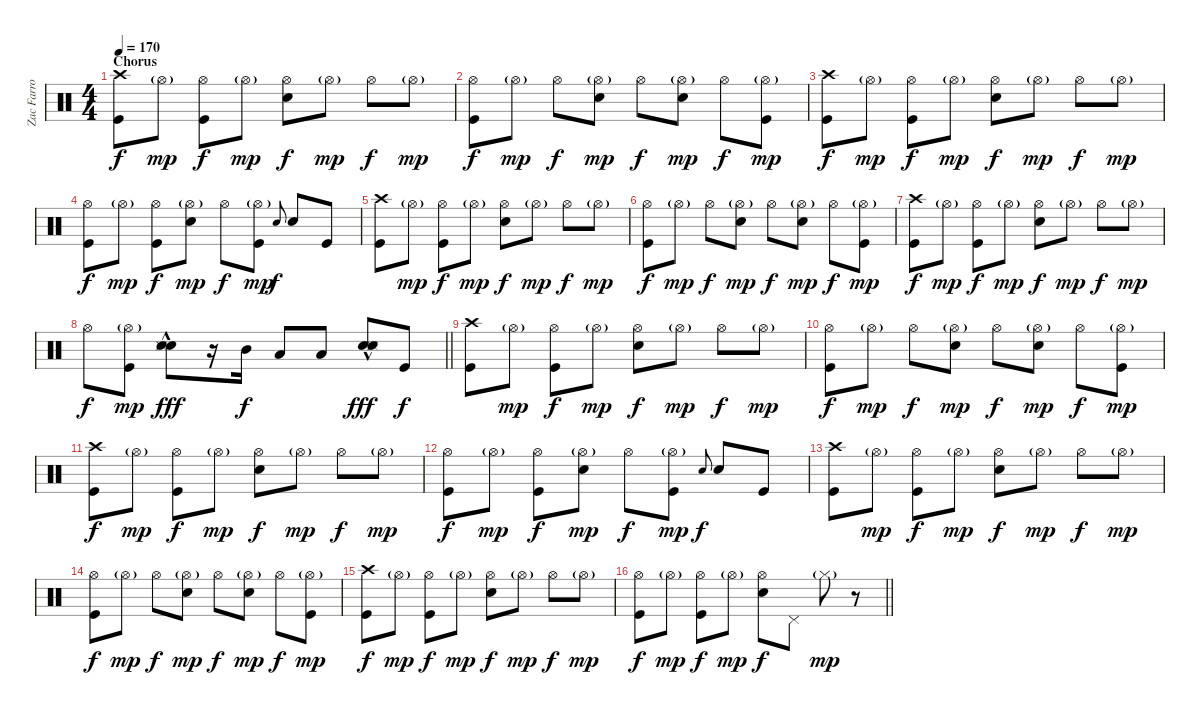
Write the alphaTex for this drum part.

\track ("Zac Farro (Drums)" "Zac Farro ") {instrument percussion}
\staff {score}
\articulation defaults
\ts (4 4)
\section ("" "Chorus")
\tempo 170
\clef neutral
\ks c
("Crash high (hit)" "Kick (hit)").8{dy f} "Hi-Hat (open)"{g}.8{dy mp} ("Hi-Hat (open)" "Kick (hit)").8{dy f} "Hi-Hat (open)"{g}.8{dy mp} ("Hi-Hat (open)" "Electric Snare (hit)").8{dy f} "Hi-Hat (open)"{g}.8{dy mp} "Hi-Hat (open)".8{dy f} "Hi-Hat (open)"{g}.8{dy mp} |
("Hi-Hat (open)" "Kick (hit)").8{dy f} "Hi-Hat (open)"{g}.8{dy mp} "Hi-Hat (open)".8{dy f} ("Hi-Hat (open)"{g} "Electric Snare (hit)").8{dy mp} "Hi-Hat (open)".8{dy f} ("Hi-Hat (open)"{g} "Electric Snare (hit)").8{dy mp} "Hi-Hat (open)".8{dy f} ("Hi-Hat (open)"{g} "Kick (hit)").8{dy mp} |
("Crash high (hit)" "Kick (hit)").8{dy f} "Hi-Hat (open)"{g}.8{dy mp} ("Hi-Hat (open)" "Kick (hit)").8{dy f} "Hi-Hat (open)"{g}.8{dy mp} ("Hi-Hat (open)" "Electric Snare (hit)").8{dy f} "Hi-Hat (open)"{g}.8{dy mp} "Hi-Hat (open)".8{dy f} "Hi-Hat (open)"{g}.8{dy mp} |
("Hi-Hat (open)" "Kick (hit)").8{dy f} "Hi-Hat (open)"{g}.8{dy mp} ("Hi-Hat (open)" "Kick (hit)").8{dy f} ("Hi-Hat (open)"{g} "Electric Snare (hit)").8{dy mp} "Hi-Hat (open)".8{dy f} ("Hi-Hat (open)"{g} "Kick (hit)").8{dy mp} "Electric Snare (hit)".8{gr onbeat dy f} "Electric Snare (hit)".8 "Kick (hit)".8 |
("Crash high (hit)" "Kick (hit)").8 "Hi-Hat (open)"{g}.8{dy mp} ("Hi-Hat (open)" "Kick (hit)").8{dy f} "Hi-Hat (open)"{g}.8{dy mp} ("Hi-Hat (open)" "Electric Snare (hit)").8{dy f} "Hi-Hat (open)"{g}.8{dy mp} "Hi-Hat (open)".8{dy f} "Hi-Hat (open)"{g}.8{dy mp} |
("Hi-Hat (open)" "Kick (hit)").8{dy f} "Hi-Hat (open)"{g}.8{dy mp} "Hi-Hat (open)".8{dy f} ("Hi-Hat (open)"{g} "Electric Snare (hit)").8{dy mp} "Hi-Hat (open)".8{dy f} ("Hi-Hat (open)"{g} "Electric Snare (hit)").8{dy mp} "Hi-Hat (open)".8{dy f} ("Hi-Hat (open)"{g} "Kick (hit)").8{dy mp} |
("Crash high (hit)" "Kick (hit)").8{dy f} "Hi-Hat (open)"{g}.8{dy mp} ("Hi-Hat (open)" "Kick (hit)").8{dy f} "Hi-Hat (open)"{g}.8{dy mp} ("Hi-Hat (open)" "Electric Snare (hit)").8{dy f} "Hi-Hat (open)"{g}.8{dy mp} "Hi-Hat (open)".8{dy f} "Hi-Hat (open)"{g}.8{dy mp} |
\barLineRight lightlight "Hi-Hat (open)".8{dy f}
("Hi-Hat (open)"{g} "Kick (hit)").8{dy mp} ("Snare (hit) 2"{hac} "Snare (side stick) 3"{hac} "Electric Snare (hit)"{hac}).8{dy fff} r.16 "Mid Tom (hit)".16{dy f} "Low Floor Tom (hit)".8 "Low Floor Tom (hit)".8 ("Snare (hit) 2"{hac} "Snare (side stick) 3"{hac} "Electric Snare (hit)"{hac}).8{dy fff} "Kick (hit)".8{dy f} |
("Crash high (hit)" "Kick (hit)").8 "Hi-Hat (open)"{g}.8{dy mp} ("Hi-Hat (open)" "Kick (hit)").8{dy f} "Hi-Hat (open)"{g}.8{dy mp} ("Hi-Hat (open)" "Electric Snare (hit)").8{dy f} "Hi-Hat (open)"{g}.8{dy mp} "Hi-Hat (open)".8{dy f} "Hi-Hat (open)"{g}.8{dy mp} |
("Hi-Hat (open)" "Kick (hit)").8{dy f} "Hi-Hat (open)"{g}.8{dy mp} "Hi-Hat (open)".8{dy f} ("Hi-Hat (open)"{g} "Electric Snare (hit)").8{dy mp} "Hi-Hat (open)".8{dy f} ("Hi-Hat (open)"{g} "Electric Snare (hit)").8{dy mp} "Hi-Hat (open)".8{dy f} ("Hi-Hat (open)"{g} "Kick (hit)").8{dy mp} |
("Crash high (hit)" "Kick (hit)").8{dy f} "Hi-Hat (open)"{g}.8{dy mp} ("Hi-Hat (open)" "Kick (hit)").8{dy f} "Hi-Hat (open)"{g}.8{dy mp} ("Hi-Hat (open)" "Electric Snare (hit)").8{dy f} "Hi-Hat (open)"{g}.8{dy mp} "Hi-Hat (open)".8{dy f} "Hi-Hat (open)"{g}.8{dy mp} |
("Hi-Hat (open)" "Kick (hit)").8{dy f} "Hi-Hat (open)"{g}.8{dy mp} ("Hi-Hat (open)" "Kick (hit)").8{dy f} ("Hi-Hat (open)"{g} "Electric Snare (hit)").8{dy mp} "Hi-Hat (open)".8{dy f} ("Hi-Hat (open)"{g} "Kick (hit)").8{dy mp} "Electric Snare (hit)".8{gr onbeat dy f} "Electric Snare (hit)".8 "Kick (hit)".8 |
("Crash high (hit)" "Kick (hit)").8 "Hi-Hat (open)"{g}.8{dy mp} ("Hi-Hat (open)" "Kick (hit)").8{dy f} "Hi-Hat (open)"{g}.8{dy mp} ("Hi-Hat (open)" "Electric Snare (hit)").8{dy f} "Hi-Hat (open)"{g}.8{dy mp} "Hi-Hat (open)".8{dy f} "Hi-Hat (open)"{g}.8{dy mp} |
("Hi-Hat (open)" "Kick (hit)").8{dy f} "Hi-Hat (open)"{g}.8{dy mp} "Hi-Hat (open)".8{dy f} ("Hi-Hat (open)"{g} "Electric Snare (hit)").8{dy mp} "Hi-Hat (open)".8{dy f} ("Hi-Hat (open)"{g} "Electric Snare (hit)").8{dy mp} "Hi-Hat (open)".8{dy f} ("Hi-Hat (open)"{g} "Kick (hit)").8{dy mp} |
("Crash high (hit)" "Kick (hit)").8{dy f} "Hi-Hat (open)"{g}.8{dy mp} ("Hi-Hat (open)" "Kick (hit)").8{dy f} "Hi-Hat (open)"{g}.8{dy mp} ("Hi-Hat (open)" "Electric Snare (hit)").8{dy f} "Hi-Hat (open)"{g}.8{dy mp} "Hi-Hat (open)".8{dy f} "Hi-Hat (open)"{g}.8{dy mp} |
\barLineRight lightlight
("Hi-Hat (open)" "Kick (hit)").8{dy f} "Hi-Hat (open)"{g}.8{dy mp} ("Hi-Hat (open)" "Kick (hit)").8{dy f} "Hi-Hat (open)"{g}.8{dy mp} ("Hi-Hat (open)" "Electric Snare (hit)").8{dy f} "Pedal Hi-Hat (hit)".8 "Hi-Hat (closed)"{g}.8{dy mp} r.8
